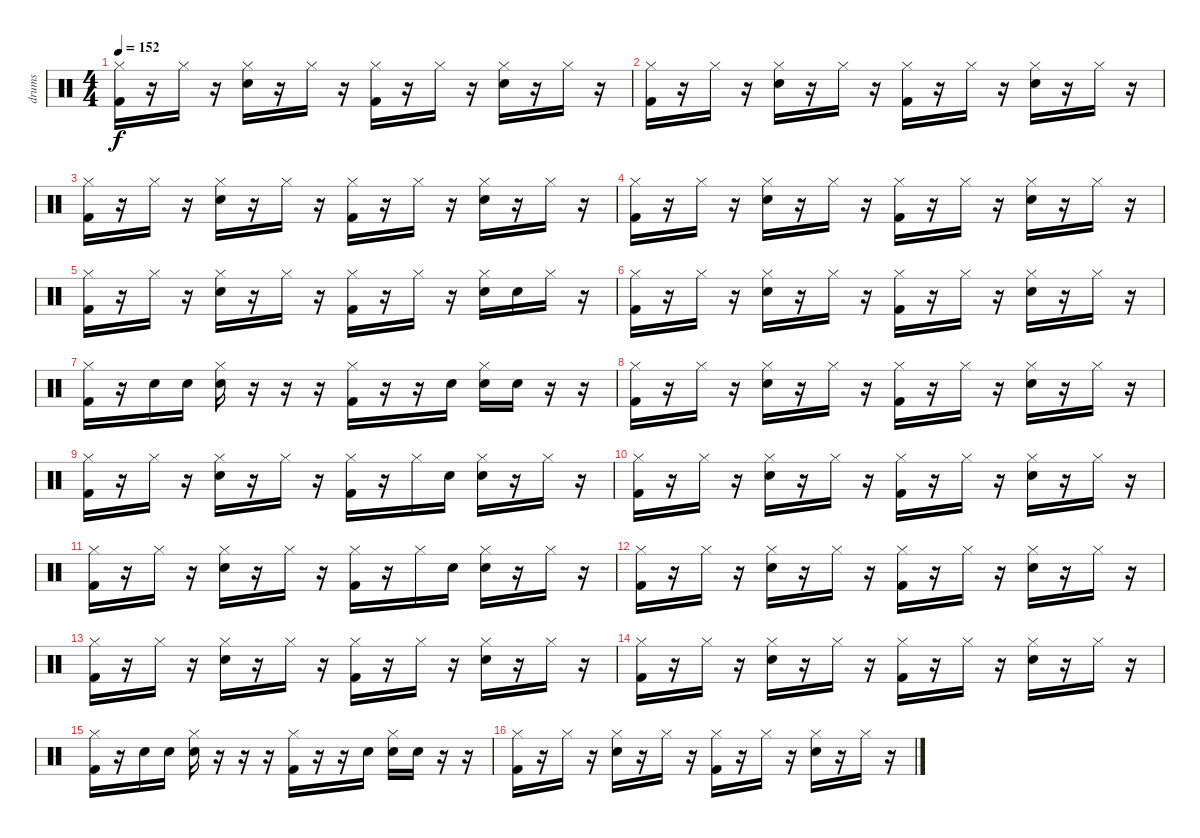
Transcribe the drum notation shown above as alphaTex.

\track ("drums" "drums") {instrument percussion}
\staff {score}
\articulation defaults
\ts (4 4)
\tempo 152
\clef neutral
\ks c
("Hi-Hat (closed)" "Kick (hit) 2").16{dy f} r.16 "Hi-Hat (closed)".16 r.16 ("Hi-Hat (closed)" "Electric Snare (hit)").16 r.16 "Hi-Hat (closed)".16 r.16 ("Hi-Hat (closed)" "Kick (hit) 2").16 r.16 "Hi-Hat (closed)".16 r.16 ("Hi-Hat (closed)" "Electric Snare (hit)").16 r.16 "Hi-Hat (closed)".16 r.16 |
("Hi-Hat (closed)" "Kick (hit) 2").16 r.16 "Hi-Hat (closed)".16 r.16 ("Hi-Hat (closed)" "Electric Snare (hit)").16 r.16 "Hi-Hat (closed)".16 r.16 ("Hi-Hat (closed)" "Kick (hit) 2").16 r.16 "Hi-Hat (closed)".16 r.16 ("Hi-Hat (closed)" "Electric Snare (hit)").16 r.16 "Hi-Hat (closed)".16 r.16 |
("Hi-Hat (closed)" "Kick (hit) 2").16 r.16 "Hi-Hat (closed)".16 r.16 ("Hi-Hat (closed)" "Electric Snare (hit)").16 r.16 "Hi-Hat (closed)".16 r.16 ("Hi-Hat (closed)" "Kick (hit) 2").16 r.16 "Hi-Hat (closed)".16 r.16 ("Hi-Hat (closed)" "Electric Snare (hit)").16 r.16 "Hi-Hat (closed)".16 r.16 |
("Hi-Hat (closed)" "Kick (hit) 2").16 r.16 "Hi-Hat (closed)".16 r.16 ("Hi-Hat (closed)" "Electric Snare (hit)").16 r.16 "Hi-Hat (closed)".16 r.16 ("Hi-Hat (closed)" "Kick (hit) 2").16 r.16 "Hi-Hat (closed)".16 r.16 ("Hi-Hat (closed)" "Electric Snare (hit)").16 r.16 "Hi-Hat (closed)".16 r.16 |
("Hi-Hat (closed)" "Kick (hit) 2").16 r.16 "Hi-Hat (closed)".16 r.16 ("Hi-Hat (closed)" "Electric Snare (hit)").16 r.16 "Hi-Hat (closed)".16 r.16 ("Hi-Hat (closed)" "Kick (hit) 2").16 r.16 "Hi-Hat (closed)".16 r.16 ("Hi-Hat (closed)" "Electric Snare (hit)").16 "Electric Snare (hit)".16 "Hi-Hat (closed)".16 r.16 |
("Hi-Hat (closed)" "Kick (hit) 2").16 r.16 "Hi-Hat (closed)".16 r.16 ("Hi-Hat (closed)" "Electric Snare (hit)").16 r.16 "Hi-Hat (closed)".16 r.16 ("Hi-Hat (closed)" "Kick (hit) 2").16 r.16 "Hi-Hat (closed)".16 r.16 ("Hi-Hat (closed)" "Electric Snare (hit)").16 r.16 "Hi-Hat (closed)".16 r.16 |
("Hi-Hat (closed)" "Kick (hit) 2").16 r.16 "Electric Snare (hit)".16 "Electric Snare (hit)".16 ("Hi-Hat (closed)" "Electric Snare (hit)").16 r.16 r.16 r.16 ("Hi-Hat (closed)" "Kick (hit) 2").16 r.16 r.16 "Electric Snare (hit)".16 ("Hi-Hat (closed)" "Electric Snare (hit)").16 "Electric Snare (hit)".16 r.16 r.16 |
("Hi-Hat (closed)" "Kick (hit) 2").16 r.16 "Hi-Hat (closed)".16 r.16 ("Hi-Hat (closed)" "Electric Snare (hit)").16 r.16 "Hi-Hat (closed)".16 r.16 ("Hi-Hat (closed)" "Kick (hit) 2").16 r.16 "Hi-Hat (closed)".16 r.16 ("Hi-Hat (closed)" "Electric Snare (hit)").16 r.16 "Hi-Hat (closed)".16 r.16 |
("Hi-Hat (closed)" "Kick (hit) 2").16 r.16 "Hi-Hat (closed)".16 r.16 ("Hi-Hat (closed)" "Electric Snare (hit)").16 r.16 "Hi-Hat (closed)".16 r.16 ("Hi-Hat (closed)" "Kick (hit) 2").16 r.16 "Hi-Hat (closed)".16 "Electric Snare (hit)".16 ("Hi-Hat (closed)" "Electric Snare (hit)").16 r.16 "Hi-Hat (closed)".16 r.16 |
("Hi-Hat (closed)" "Kick (hit) 2").16 r.16 "Hi-Hat (closed)".16 r.16 ("Hi-Hat (closed)" "Electric Snare (hit)").16 r.16 "Hi-Hat (closed)".16 r.16 ("Hi-Hat (closed)" "Kick (hit) 2").16 r.16 "Hi-Hat (closed)".16 r.16 ("Hi-Hat (closed)" "Electric Snare (hit)").16 r.16 "Hi-Hat (closed)".16 r.16 |
("Hi-Hat (closed)" "Kick (hit) 2").16 r.16 "Hi-Hat (closed)".16 r.16 ("Hi-Hat (closed)" "Electric Snare (hit)").16 r.16 "Hi-Hat (closed)".16 r.16 ("Hi-Hat (closed)" "Kick (hit) 2").16 r.16 "Hi-Hat (closed)".16 "Electric Snare (hit)".16 ("Hi-Hat (closed)" "Electric Snare (hit)").16 r.16 "Hi-Hat (closed)".16 r.16 |
("Hi-Hat (closed)" "Kick (hit) 2").16 r.16 "Hi-Hat (closed)".16 r.16 ("Hi-Hat (closed)" "Electric Snare (hit)").16 r.16 "Hi-Hat (closed)".16 r.16 ("Hi-Hat (closed)" "Kick (hit) 2").16 r.16 "Hi-Hat (closed)".16 r.16 ("Hi-Hat (closed)" "Electric Snare (hit)").16 r.16 "Hi-Hat (closed)".16 r.16 |
("Hi-Hat (closed)" "Kick (hit) 2").16 r.16 "Hi-Hat (closed)".16 r.16 ("Hi-Hat (closed)" "Electric Snare (hit)").16 r.16 "Hi-Hat (closed)".16 r.16 ("Hi-Hat (closed)" "Kick (hit) 2").16 r.16 "Hi-Hat (closed)".16 r.16 ("Hi-Hat (closed)" "Electric Snare (hit)").16 r.16 "Hi-Hat (closed)".16 r.16 |
("Hi-Hat (closed)" "Kick (hit) 2").16 r.16 "Hi-Hat (closed)".16 r.16 ("Hi-Hat (closed)" "Electric Snare (hit)").16 r.16 "Hi-Hat (closed)".16 r.16 ("Hi-Hat (closed)" "Kick (hit) 2").16 r.16 "Hi-Hat (closed)".16 r.16 ("Hi-Hat (closed)" "Electric Snare (hit)").16 r.16 "Hi-Hat (closed)".16 r.16 |
("Hi-Hat (closed)" "Kick (hit) 2").16 r.16 "Electric Snare (hit)".16 "Electric Snare (hit)".16 ("Hi-Hat (closed)" "Electric Snare (hit)").16 r.16 r.16 r.16 ("Hi-Hat (closed)" "Kick (hit) 2").16 r.16 r.16 "Electric Snare (hit)".16 ("Hi-Hat (closed)" "Electric Snare (hit)").16 "Electric Snare (hit)".16 r.16 r.16 |
("Hi-Hat (closed)" "Kick (hit) 2").16 r.16 "Hi-Hat (closed)".16 r.16 ("Hi-Hat (closed)" "Electric Snare (hit)").16 r.16 "Hi-Hat (closed)".16 r.16 ("Hi-Hat (closed)" "Kick (hit) 2").16 r.16 "Hi-Hat (closed)".16 r.16 ("Hi-Hat (closed)" "Electric Snare (hit)").16 r.16 "Hi-Hat (closed)".16 r.16
